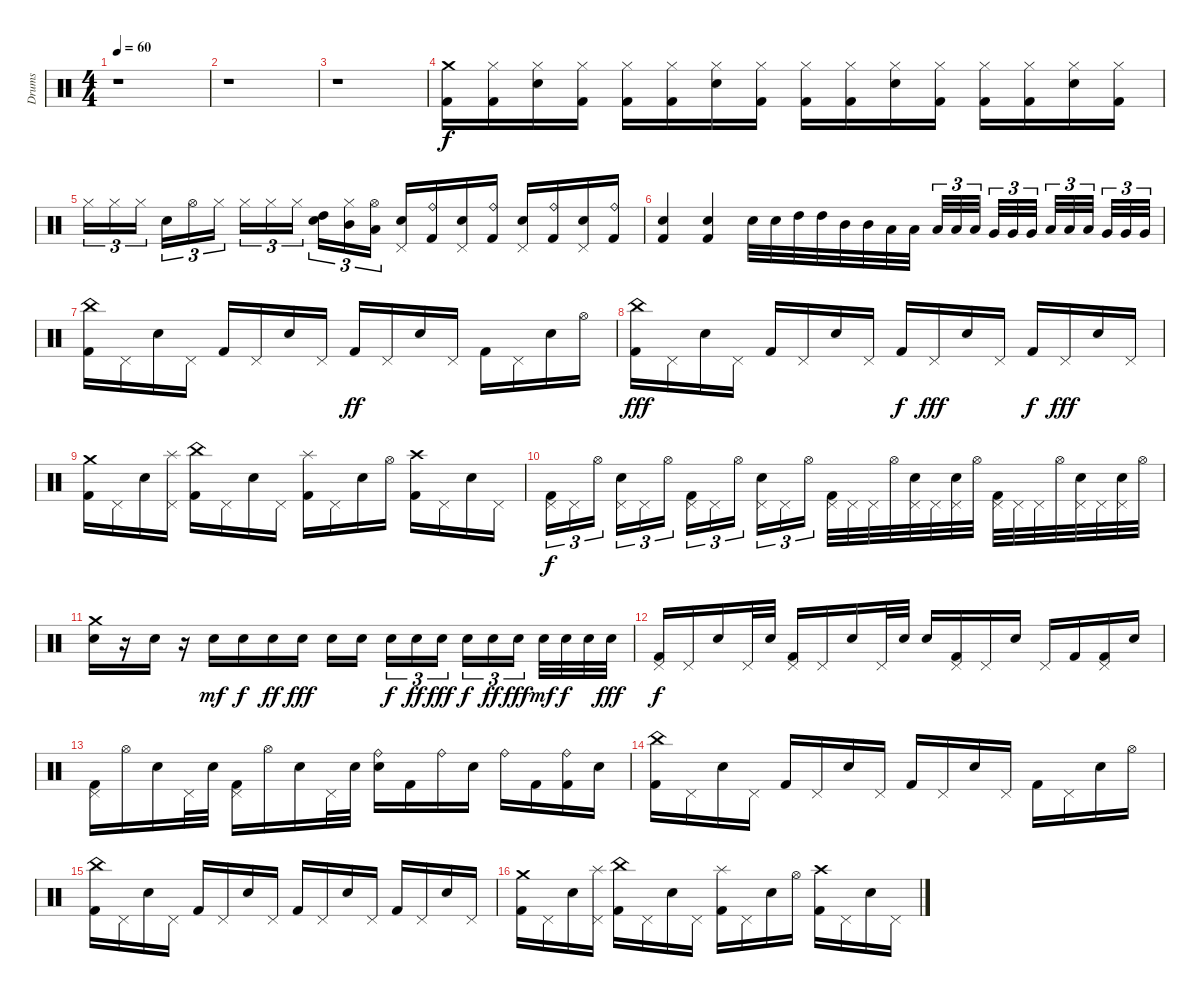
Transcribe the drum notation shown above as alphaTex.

\track ("Drums" "Drums") {instrument percussion}
\staff {score}
\articulation defaults
\ts (4 4)
\tempo 60
\clef neutral
\ks c
r.1{dy f} |
r.1 |
r.1 |
("Crash medium (hit)" "Kick (hit) 2").16{volume 13} ("Hi-Hat (closed)" "Kick (hit) 2").16 ("Hi-Hat (closed)" "Electric Snare (hit)").16 ("Hi-Hat (closed)" "Kick (hit) 2").16 ("Hi-Hat (closed)" "Kick (hit) 2").16 ("Hi-Hat (closed)" "Kick (hit) 2").16 ("Hi-Hat (closed)" "Electric Snare (hit)").16 ("Hi-Hat (closed)" "Kick (hit) 2").16 ("Hi-Hat (closed)" "Kick (hit) 2").16 ("Hi-Hat (closed)" "Kick (hit) 2").16 ("Hi-Hat (closed)" "Electric Snare (hit)").16 ("Hi-Hat (closed)" "Kick (hit) 2").16 ("Hi-Hat (closed)" "Kick (hit) 2").16 ("Hi-Hat (closed)" "Kick (hit) 2").16 ("Hi-Hat (closed)" "Electric Snare (hit)").16 ("Hi-Hat (closed)" "Kick (hit) 2").16 |
"Hi-Hat (closed)".16{tu (3 2)} "Hi-Hat (closed)".16{tu (3 2)} "Hi-Hat (closed)".16{tu (3 2)} "Electric Snare (hit)".16{tu (3 2)} "Hi-Hat (open)".16{tu (3 2)} "Hi-Hat (closed)".16{tu (3 2)} "Hi-Hat (closed)".16{tu (3 2)} "Hi-Hat (closed)".16{tu (3 2)} "Hi-Hat (closed)".16{tu (3 2)} ("Electric Snare (hit)" "High Tom (hit)").16{tu (3 2)} ("Hi-Hat (closed)" "Mid Tom (hit)").16{tu (3 2)} ("Hi-Hat (open)" "Low Tom (hit)").16{tu (3 2)} ("Pedal Hi-Hat (hit)" "Electric Snare (hit)").16 ("Ride (bell)" "Kick (hit) 2").16 ("Pedal Hi-Hat (hit)" "Electric Snare (hit)").16 ("Ride (bell)" "Kick (hit) 2").16 ("Pedal Hi-Hat (hit)" "Electric Snare (hit)").16 ("Ride (bell)" "Kick (hit) 2").16 ("Pedal Hi-Hat (hit)" "Electric Snare (hit)").16 ("Ride (bell)" "Kick (hit) 2").16 |
("Electric Snare (hit)" "Kick (hit) 2").4 ("Electric Snare (hit)" "Kick (hit) 2").4 "Electric Snare (hit)".32 "Electric Snare (hit)".32 "High Tom (hit)".32 "High Tom (hit)".32 "Mid Tom (hit)".32 "Mid Tom (hit)".32 "Low Tom (hit)".32 "Low Tom (hit)".32 "Low Tom (hit)".32{tu (3 2)} "Low Tom (hit)".32{tu (3 2)} "Low Tom (hit)".32{tu (3 2)} "Very Low Tom (hit)".32{tu (3 2)} "Very Low Tom (hit)".32{tu (3 2)} "Very Low Tom (hit)".32{tu (3 2)} "Low Tom (hit)".32{tu (3 2)} "Low Tom (hit)".32{tu (3 2)} "Low Tom (hit)".32{tu (3 2)} "Very Low Tom (hit)".32{tu (3 2)} "Very Low Tom (hit)".32{tu (3 2)} "Very Low Tom (hit)".32{tu (3 2)} |
("China (hit)" "Kick (hit) 2").16 "Pedal Hi-Hat (hit)".16 "Electric Snare (hit)".16 "Pedal Hi-Hat (hit)".16 "Kick (hit) 2".16 "Pedal Hi-Hat (hit)".16 "Electric Snare (hit)".16 "Pedal Hi-Hat (hit)".16 "Kick (hit) 2".16{dy ff} "Pedal Hi-Hat (hit)".16 "Electric Snare (hit)".16 "Pedal Hi-Hat (hit)".16 "Kick (hit) 2".16 "Pedal Hi-Hat (hit)".16 "Electric Snare (hit)".16 "Hi-Hat (open)".16 |
("China (hit)" "Kick (hit) 2").16{dy fff} "Pedal Hi-Hat (hit)".16 "Electric Snare (hit)".16 "Pedal Hi-Hat (hit)".16 "Kick (hit) 2".16 "Pedal Hi-Hat (hit)".16 "Electric Snare (hit)".16 "Pedal Hi-Hat (hit)".16 "Kick (hit) 2".16{dy f} "Pedal Hi-Hat (hit)".16{dy fff} "Electric Snare (hit)".16 "Pedal Hi-Hat (hit)".16 "Kick (hit) 2".16{dy f} "Pedal Hi-Hat (hit)".16{dy fff} "Electric Snare (hit)".16 "Pedal Hi-Hat (hit)".16 |
("Crash medium (hit)" "Kick (hit) 2").16 "Pedal Hi-Hat (hit)".16 "Electric Snare (hit)".16 ("Splash (hit)" "Pedal Hi-Hat (hit)").16 ("China (hit)" "Kick (hit) 2").16 "Pedal Hi-Hat (hit)".16 "Electric Snare (hit)".16 "Pedal Hi-Hat (hit)".16 ("Splash (hit)" "Kick (hit) 2").16 "Pedal Hi-Hat (hit)".16 "Electric Snare (hit)".16 "Hi-Hat (open)".16 ("Crash high (hit)" "Kick (hit) 2").16 "Pedal Hi-Hat (hit)".16 "Electric Snare (hit)".16 "Pedal Hi-Hat (hit)".16 |
("Pedal Hi-Hat (hit)" "Kick (hit) 2").16{tu (3 2) dy f} "Pedal Hi-Hat (hit)".16{tu (3 2)} "Hi-Hat (open)".16{tu (3 2)} ("Pedal Hi-Hat (hit)" "Electric Snare (hit)").16{tu (3 2)} "Pedal Hi-Hat (hit)".16{tu (3 2)} "Hi-Hat (open)".16{tu (3 2)} ("Pedal Hi-Hat (hit)" "Kick (hit) 2").16{tu (3 2)} "Pedal Hi-Hat (hit)".16{tu (3 2)} "Hi-Hat (open)".16{tu (3 2)} ("Pedal Hi-Hat (hit)" "Electric Snare (hit)").16{tu (3 2)} "Pedal Hi-Hat (hit)".16{tu (3 2)} "Hi-Hat (open)".16{tu (3 2)} ("Pedal Hi-Hat (hit)" "Kick (hit) 2").32 "Pedal Hi-Hat (hit)".32 "Pedal Hi-Hat (hit)".32 "Hi-Hat (open)".32 ("Pedal Hi-Hat (hit)" "Electric Snare (hit)").32 "Pedal Hi-Hat (hit)".32 ("Pedal Hi-Hat (hit)" "Electric Snare (hit)").32 "Hi-Hat (open)".32 ("Pedal Hi-Hat (hit)" "Kick (hit) 2").32 "Pedal Hi-Hat (hit)".32 "Pedal Hi-Hat (hit)".32 "Hi-Hat (open)".32 ("Pedal Hi-Hat (hit)" "Electric Snare (hit)").32 "Pedal Hi-Hat (hit)".32 ("Pedal Hi-Hat (hit)" "Electric Snare (hit)").32 "Hi-Hat (open)".32 |
("Crash medium (hit)" "Electric Snare (hit)").16 r.16 "Electric Snare (hit)".16 r.16 "Electric Snare (hit)".16{dy mf} "Electric Snare (hit)".16{dy f} "Electric Snare (hit)".16{dy ff} "Electric Snare (hit)".16{dy fff} "Electric Snare (hit)".16 "Electric Snare (hit)".16 "Electric Snare (hit)".16{tu (3 2) dy f} "Electric Snare (hit)".16{tu (3 2) dy ff} "Electric Snare (hit)".16{tu (3 2) dy fff} "Electric Snare (hit)".16{tu (3 2) dy f} "Electric Snare (hit)".16{tu (3 2) dy ff} "Electric Snare (hit)".16{tu (3 2) dy fff} "Electric Snare (hit)".32{dy mf} "Electric Snare (hit)".32{dy f} "Electric Snare (hit)".32 "Electric Snare (hit)".32{dy fff} |
("Pedal Hi-Hat (hit)" "Kick (hit) 2").16{dy f} "Pedal Hi-Hat (hit)".16 "Electric Snare (hit)".16 "Pedal Hi-Hat (hit)".32 "Electric Snare (hit)".32 ("Pedal Hi-Hat (hit)" "Kick (hit) 2").16 "Pedal Hi-Hat (hit)".16 "Electric Snare (hit)".16 "Pedal Hi-Hat (hit)".32 "Electric Snare (hit)".32 "Electric Snare (hit)".16 ("Pedal Hi-Hat (hit)" "Kick (hit) 2").16 "Pedal Hi-Hat (hit)".16 "Electric Snare (hit)".16 "Pedal Hi-Hat (hit)".16 "Kick (hit) 2".16 ("Pedal Hi-Hat (hit)" "Kick (hit) 2").16 "Electric Snare (hit)".16 |
("Pedal Hi-Hat (hit)" "Kick (hit) 2").16 "Hi-Hat (open)".16 "Electric Snare (hit)".16 "Pedal Hi-Hat (hit)".32 "Electric Snare (hit)".32 ("Pedal Hi-Hat (hit)" "Kick (hit) 2").16 "Hi-Hat (open)".16 "Electric Snare (hit)".16 "Pedal Hi-Hat (hit)".32 "Electric Snare (hit)".32 ("Ride (bell)" "Electric Snare (hit)").16 "Kick (hit) 2".16 "Ride (bell)".16 "Electric Snare (hit)".16 "Ride (bell)".16 "Kick (hit) 2".16 ("Ride (bell)" "Kick (hit) 2").16 "Electric Snare (hit)".16 |
("China (hit)" "Kick (hit) 2").16 "Pedal Hi-Hat (hit)".16 "Electric Snare (hit)".16 "Pedal Hi-Hat (hit)".16 "Kick (hit) 2".16 "Pedal Hi-Hat (hit)".16 "Electric Snare (hit)".16 "Pedal Hi-Hat (hit)".16 "Kick (hit) 2".16 "Pedal Hi-Hat (hit)".16 "Electric Snare (hit)".16 "Pedal Hi-Hat (hit)".16 "Kick (hit) 2".16 "Pedal Hi-Hat (hit)".16 "Electric Snare (hit)".16 "Hi-Hat (open)".16 |
("China (hit)" "Kick (hit) 2").16 "Pedal Hi-Hat (hit)".16 "Electric Snare (hit)".16 "Pedal Hi-Hat (hit)".16 "Kick (hit) 2".16 "Pedal Hi-Hat (hit)".16 "Electric Snare (hit)".16 "Pedal Hi-Hat (hit)".16 "Kick (hit) 2".16 "Pedal Hi-Hat (hit)".16 "Electric Snare (hit)".16 "Pedal Hi-Hat (hit)".16 "Kick (hit) 2".16 "Pedal Hi-Hat (hit)".16 "Electric Snare (hit)".16 "Pedal Hi-Hat (hit)".16 |
("Crash medium (hit)" "Kick (hit) 2").16 "Pedal Hi-Hat (hit)".16 "Electric Snare (hit)".16 ("Splash (hit)" "Pedal Hi-Hat (hit)").16 ("China (hit)" "Kick (hit) 2").16 "Pedal Hi-Hat (hit)".16 "Electric Snare (hit)".16 "Pedal Hi-Hat (hit)".16 ("Splash (hit)" "Kick (hit) 2").16 "Pedal Hi-Hat (hit)".16 "Electric Snare (hit)".16 "Hi-Hat (open)".16 ("Crash high (hit)" "Kick (hit) 2").16 "Pedal Hi-Hat (hit)".16 "Electric Snare (hit)".16 "Pedal Hi-Hat (hit)".16
